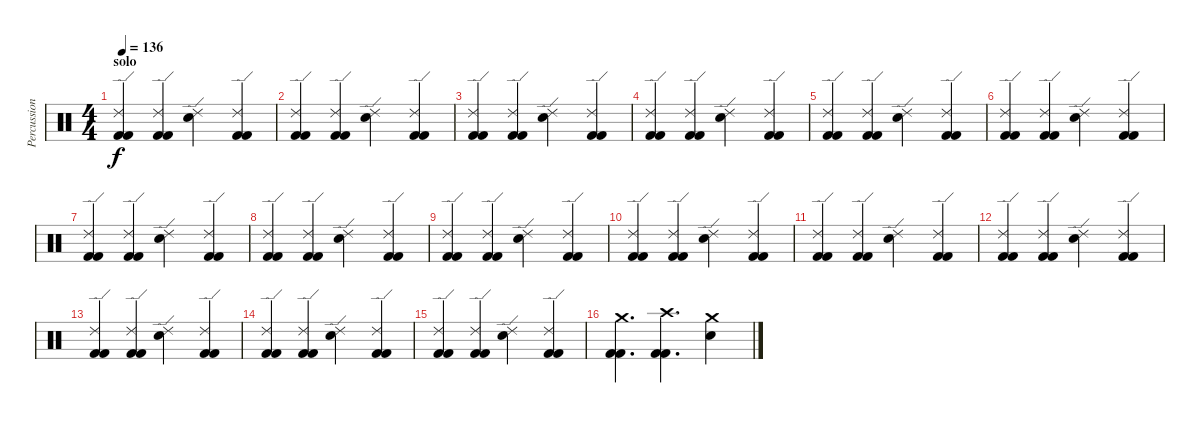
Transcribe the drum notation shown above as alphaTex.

\track ("Percussioni" "Percussion") {instrument percussion}
\staff {score}
\articulation defaults
\ts (4 4)
\section ("" "solo")
\tempo 136
\clef neutral
\ks c
("Ride (edge) 2" "Kick (hit) 2" "Kick (hit) 2").4{dy f} ("Ride (edge) 2" "Kick (hit) 2" "Kick (hit) 2").4 ("Ride (edge) 2" "Electric Snare (hit)").4 ("Ride (edge) 2" "Kick (hit) 2" "Kick (hit) 2").4 |
("Ride (edge) 2" "Kick (hit) 2" "Kick (hit) 2").4 ("Ride (edge) 2" "Kick (hit) 2" "Kick (hit) 2").4 ("Ride (edge) 2" "Electric Snare (hit)").4 ("Ride (edge) 2" "Kick (hit) 2" "Kick (hit) 2").4 |
("Ride (edge) 2" "Kick (hit) 2" "Kick (hit) 2").4 ("Ride (edge) 2" "Kick (hit) 2" "Kick (hit) 2").4 ("Ride (edge) 2" "Electric Snare (hit)").4 ("Ride (edge) 2" "Kick (hit) 2" "Kick (hit) 2").4 |
("Ride (edge) 2" "Kick (hit) 2" "Kick (hit) 2").4 ("Ride (edge) 2" "Kick (hit) 2" "Kick (hit) 2").4 ("Ride (edge) 2" "Electric Snare (hit)").4 ("Ride (edge) 2" "Kick (hit) 2" "Kick (hit) 2").4 |
("Ride (edge) 2" "Kick (hit) 2" "Kick (hit) 2").4 ("Ride (edge) 2" "Kick (hit) 2" "Kick (hit) 2").4 ("Ride (edge) 2" "Electric Snare (hit)").4 ("Ride (edge) 2" "Kick (hit) 2" "Kick (hit) 2").4 |
("Ride (edge) 2" "Kick (hit) 2" "Kick (hit) 2").4 ("Ride (edge) 2" "Kick (hit) 2" "Kick (hit) 2").4 ("Ride (edge) 2" "Electric Snare (hit)").4 ("Ride (edge) 2" "Kick (hit) 2" "Kick (hit) 2").4 |
("Ride (edge) 2" "Kick (hit) 2" "Kick (hit) 2").4 ("Ride (edge) 2" "Kick (hit) 2" "Kick (hit) 2").4 ("Ride (edge) 2" "Electric Snare (hit)").4 ("Ride (edge) 2" "Kick (hit) 2" "Kick (hit) 2").4 |
("Ride (edge) 2" "Kick (hit) 2" "Kick (hit) 2").4 ("Ride (edge) 2" "Kick (hit) 2" "Kick (hit) 2").4 ("Ride (edge) 2" "Electric Snare (hit)").4 ("Ride (edge) 2" "Kick (hit) 2" "Kick (hit) 2").4 |
("Ride (edge) 2" "Kick (hit) 2" "Kick (hit) 2").4 ("Ride (edge) 2" "Kick (hit) 2" "Kick (hit) 2").4 ("Ride (edge) 2" "Electric Snare (hit)").4 ("Ride (edge) 2" "Kick (hit) 2" "Kick (hit) 2").4 |
("Ride (edge) 2" "Kick (hit) 2" "Kick (hit) 2").4 ("Ride (edge) 2" "Kick (hit) 2" "Kick (hit) 2").4 ("Ride (edge) 2" "Electric Snare (hit)").4 ("Ride (edge) 2" "Kick (hit) 2" "Kick (hit) 2").4 |
("Ride (edge) 2" "Kick (hit) 2" "Kick (hit) 2").4 ("Ride (edge) 2" "Kick (hit) 2" "Kick (hit) 2").4 ("Ride (edge) 2" "Electric Snare (hit)").4 ("Ride (edge) 2" "Kick (hit) 2" "Kick (hit) 2").4 |
("Ride (edge) 2" "Kick (hit) 2" "Kick (hit) 2").4 ("Ride (edge) 2" "Kick (hit) 2" "Kick (hit) 2").4 ("Ride (edge) 2" "Electric Snare (hit)").4 ("Ride (edge) 2" "Kick (hit) 2" "Kick (hit) 2").4 |
("Ride (edge) 2" "Kick (hit) 2" "Kick (hit) 2").4 ("Ride (edge) 2" "Kick (hit) 2" "Kick (hit) 2").4 ("Ride (edge) 2" "Electric Snare (hit)").4 ("Ride (edge) 2" "Kick (hit) 2" "Kick (hit) 2").4 |
("Ride (edge) 2" "Kick (hit) 2" "Kick (hit) 2").4 ("Ride (edge) 2" "Kick (hit) 2" "Kick (hit) 2").4 ("Ride (edge) 2" "Electric Snare (hit)").4 ("Ride (edge) 2" "Kick (hit) 2" "Kick (hit) 2").4 |
("Ride (edge) 2" "Kick (hit) 2" "Kick (hit) 2").4 ("Ride (edge) 2" "Kick (hit) 2" "Kick (hit) 2").4 ("Ride (edge) 2" "Electric Snare (hit)").4 ("Ride (edge) 2" "Kick (hit) 2" "Kick (hit) 2").4 |
("Crash medium (hit)" "Kick (hit) 2" "Kick (hit) 2").4{d} ("Crash high (hit)" "Kick (hit) 2" "Kick (hit) 2").4{d} ("Crash medium (hit)" "Electric Snare (hit)").4
